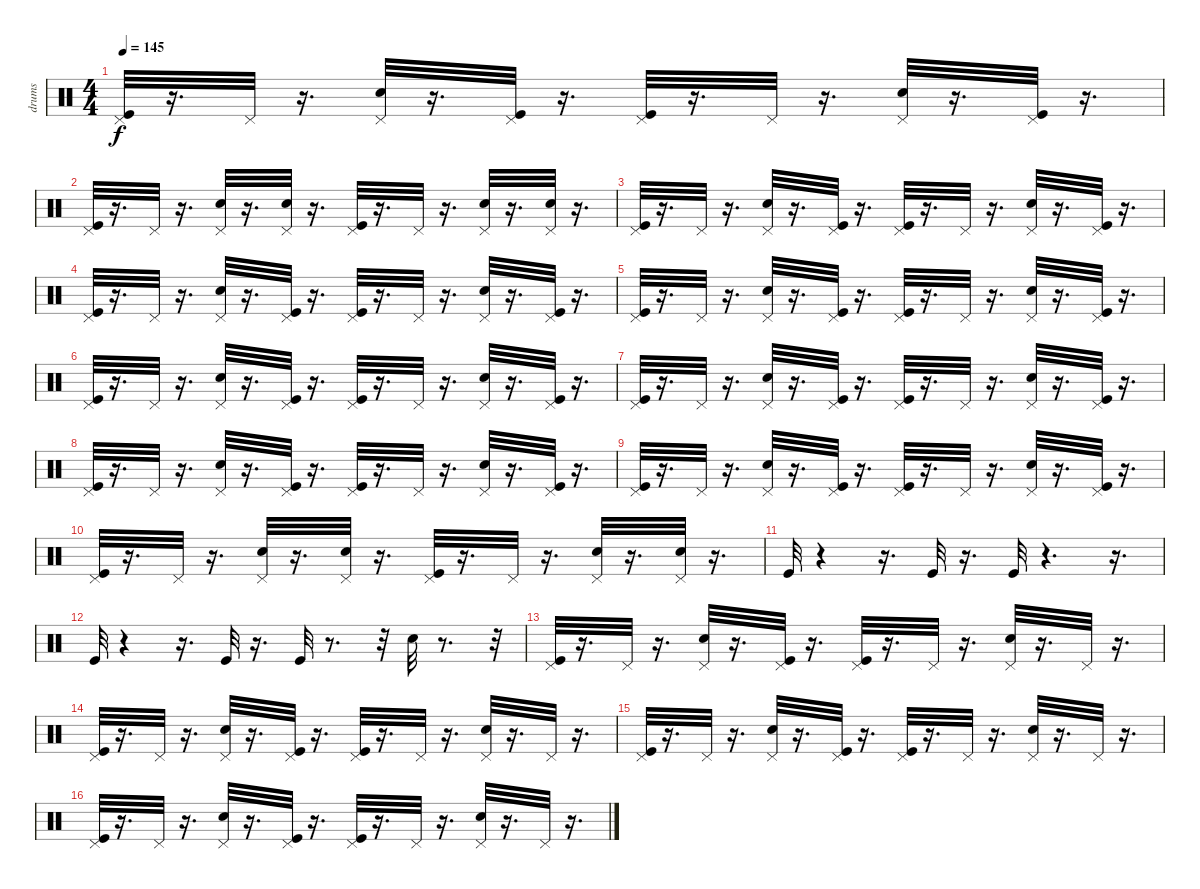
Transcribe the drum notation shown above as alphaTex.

\track ("drums" "drums") {instrument percussion}
\staff {score}
\articulation defaults
\ts (4 4)
\tempo 145
\clef neutral
\ks c
("Pedal Hi-Hat (hit)" "Kick (hit)").32{dy f} r.16{d} "Pedal Hi-Hat (hit)".32 r.16{d} ("Pedal Hi-Hat (hit)" "Electric Snare (hit)").32 r.16{d} ("Pedal Hi-Hat (hit)" "Kick (hit)").32 r.16{d} ("Pedal Hi-Hat (hit)" "Kick (hit)").32 r.16{d} "Pedal Hi-Hat (hit)".32 r.16{d} ("Pedal Hi-Hat (hit)" "Electric Snare (hit)").32 r.16{d} ("Pedal Hi-Hat (hit)" "Kick (hit)").32 r.16{d} |
("Pedal Hi-Hat (hit)" "Kick (hit)").32 r.16{d} "Pedal Hi-Hat (hit)".32 r.16{d} ("Pedal Hi-Hat (hit)" "Electric Snare (hit)").32 r.16{d} ("Electric Snare (hit)" "Pedal Hi-Hat (hit)").32 r.16{d} ("Pedal Hi-Hat (hit)" "Kick (hit)").32 r.16{d} "Pedal Hi-Hat (hit)".32 r.16{d} ("Electric Snare (hit)" "Pedal Hi-Hat (hit)").32 r.16{d} ("Electric Snare (hit)" "Pedal Hi-Hat (hit)").32 r.16{d} |
("Kick (hit)" "Pedal Hi-Hat (hit)").32 r.16{d} "Pedal Hi-Hat (hit)".32 r.16{d} ("Electric Snare (hit)" "Pedal Hi-Hat (hit)").32 r.16{d} ("Pedal Hi-Hat (hit)" "Kick (hit)").32 r.16{d} ("Pedal Hi-Hat (hit)" "Kick (hit)").32 r.16{d} "Pedal Hi-Hat (hit)".32 r.16{d} ("Pedal Hi-Hat (hit)" "Electric Snare (hit)").32 r.16{d} ("Pedal Hi-Hat (hit)" "Kick (hit)").32 r.16{d} |
("Pedal Hi-Hat (hit)" "Kick (hit)").32 r.16{d} "Pedal Hi-Hat (hit)".32 r.16{d} ("Pedal Hi-Hat (hit)" "Electric Snare (hit)").32 r.16{d} ("Pedal Hi-Hat (hit)" "Kick (hit)").32 r.16{d} ("Pedal Hi-Hat (hit)" "Kick (hit)").32 r.16{d} "Pedal Hi-Hat (hit)".32 r.16{d} ("Pedal Hi-Hat (hit)" "Electric Snare (hit)").32 r.16{d} ("Pedal Hi-Hat (hit)" "Kick (hit)").32 r.16{d} |
("Pedal Hi-Hat (hit)" "Kick (hit)").32 r.16{d} "Pedal Hi-Hat (hit)".32 r.16{d} ("Pedal Hi-Hat (hit)" "Electric Snare (hit)").32 r.16{d} ("Pedal Hi-Hat (hit)" "Kick (hit)").32 r.16{d} ("Pedal Hi-Hat (hit)" "Kick (hit)").32 r.16{d} "Pedal Hi-Hat (hit)".32 r.16{d} ("Pedal Hi-Hat (hit)" "Electric Snare (hit)").32 r.16{d} ("Pedal Hi-Hat (hit)" "Kick (hit)").32 r.16{d} |
("Pedal Hi-Hat (hit)" "Kick (hit)").32 r.16{d} "Pedal Hi-Hat (hit)".32 r.16{d} ("Pedal Hi-Hat (hit)" "Electric Snare (hit)").32 r.16{d} ("Pedal Hi-Hat (hit)" "Kick (hit)").32 r.16{d} ("Pedal Hi-Hat (hit)" "Kick (hit)").32 r.16{d} "Pedal Hi-Hat (hit)".32 r.16{d} ("Pedal Hi-Hat (hit)" "Electric Snare (hit)").32 r.16{d} ("Pedal Hi-Hat (hit)" "Kick (hit)").32 r.16{d} |
("Pedal Hi-Hat (hit)" "Kick (hit)").32 r.16{d} "Pedal Hi-Hat (hit)".32 r.16{d} ("Pedal Hi-Hat (hit)" "Electric Snare (hit)").32 r.16{d} ("Pedal Hi-Hat (hit)" "Kick (hit)").32 r.16{d} ("Pedal Hi-Hat (hit)" "Kick (hit)").32 r.16{d} "Pedal Hi-Hat (hit)".32 r.16{d} ("Pedal Hi-Hat (hit)" "Electric Snare (hit)").32 r.16{d} ("Pedal Hi-Hat (hit)" "Kick (hit)").32 r.16{d} |
("Pedal Hi-Hat (hit)" "Kick (hit)").32 r.16{d} "Pedal Hi-Hat (hit)".32 r.16{d} ("Pedal Hi-Hat (hit)" "Electric Snare (hit)").32 r.16{d} ("Pedal Hi-Hat (hit)" "Kick (hit)").32 r.16{d} ("Pedal Hi-Hat (hit)" "Kick (hit)").32 r.16{d} "Pedal Hi-Hat (hit)".32 r.16{d} ("Pedal Hi-Hat (hit)" "Electric Snare (hit)").32 r.16{d} ("Pedal Hi-Hat (hit)" "Kick (hit)").32 r.16{d} |
("Pedal Hi-Hat (hit)" "Kick (hit)").32 r.16{d} "Pedal Hi-Hat (hit)".32 r.16{d} ("Pedal Hi-Hat (hit)" "Electric Snare (hit)").32 r.16{d} ("Pedal Hi-Hat (hit)" "Kick (hit)").32 r.16{d} ("Pedal Hi-Hat (hit)" "Kick (hit)").32 r.16{d} "Pedal Hi-Hat (hit)".32 r.16{d} ("Electric Snare (hit)" "Pedal Hi-Hat (hit)").32 r.16{d} ("Kick (hit)" "Pedal Hi-Hat (hit)").32 r.16{d} |
("Pedal Hi-Hat (hit)" "Kick (hit)").32 r.16{d} "Pedal Hi-Hat (hit)".32 r.16{d} ("Pedal Hi-Hat (hit)" "Electric Snare (hit)").32 r.16{d} ("Electric Snare (hit)" "Pedal Hi-Hat (hit)").32 r.16{d} ("Pedal Hi-Hat (hit)" "Kick (hit)").32 r.16{d} "Pedal Hi-Hat (hit)".32 r.16{d} ("Electric Snare (hit)" "Pedal Hi-Hat (hit)").32 r.16{d} ("Electric Snare (hit)" "Pedal Hi-Hat (hit)").32 r.16{d} |
"Kick (hit)".32 r.4 r.16{d} "Kick (hit)".32 r.16{d} "Kick (hit)".32 r.4{d} r.16{d} |
"Kick (hit)".32 r.4 r.16{d} "Kick (hit)".32 r.16{d} "Kick (hit)".32 r.8{d} r.32 "Snare (hit) 2".32 r.8{d} r.32 |
("Pedal Hi-Hat (hit)" "Kick (hit)").32 r.16{d} "Pedal Hi-Hat (hit)".32 r.16{d} ("Pedal Hi-Hat (hit)" "Electric Snare (hit)").32 r.16{d} ("Pedal Hi-Hat (hit)" "Kick (hit)").32 r.16{d} ("Pedal Hi-Hat (hit)" "Kick (hit)").32 r.16{d} "Pedal Hi-Hat (hit)".32 r.16{d} ("Pedal Hi-Hat (hit)" "Electric Snare (hit)").32 r.16{d} "Pedal Hi-Hat (hit)".32 r.16{d} |
("Pedal Hi-Hat (hit)" "Kick (hit)").32 r.16{d} "Pedal Hi-Hat (hit)".32 r.16{d} ("Pedal Hi-Hat (hit)" "Electric Snare (hit)").32 r.16{d} ("Pedal Hi-Hat (hit)" "Kick (hit)").32 r.16{d} ("Pedal Hi-Hat (hit)" "Kick (hit)").32 r.16{d} "Pedal Hi-Hat (hit)".32 r.16{d} ("Pedal Hi-Hat (hit)" "Electric Snare (hit)").32 r.16{d} "Pedal Hi-Hat (hit)".32 r.16{d} |
("Pedal Hi-Hat (hit)" "Kick (hit)").32 r.16{d} "Pedal Hi-Hat (hit)".32 r.16{d} ("Pedal Hi-Hat (hit)" "Electric Snare (hit)").32 r.16{d} ("Pedal Hi-Hat (hit)" "Kick (hit)").32 r.16{d} ("Pedal Hi-Hat (hit)" "Kick (hit)").32 r.16{d} "Pedal Hi-Hat (hit)".32 r.16{d} ("Pedal Hi-Hat (hit)" "Electric Snare (hit)").32 r.16{d} "Pedal Hi-Hat (hit)".32 r.16{d} |
("Pedal Hi-Hat (hit)" "Kick (hit)").32 r.16{d} "Pedal Hi-Hat (hit)".32 r.16{d} ("Pedal Hi-Hat (hit)" "Electric Snare (hit)").32 r.16{d} ("Pedal Hi-Hat (hit)" "Kick (hit)").32 r.16{d} ("Pedal Hi-Hat (hit)" "Kick (hit)").32 r.16{d} "Pedal Hi-Hat (hit)".32 r.16{d} ("Pedal Hi-Hat (hit)" "Electric Snare (hit)").32 r.16{d} "Pedal Hi-Hat (hit)".32 r.16{d}
